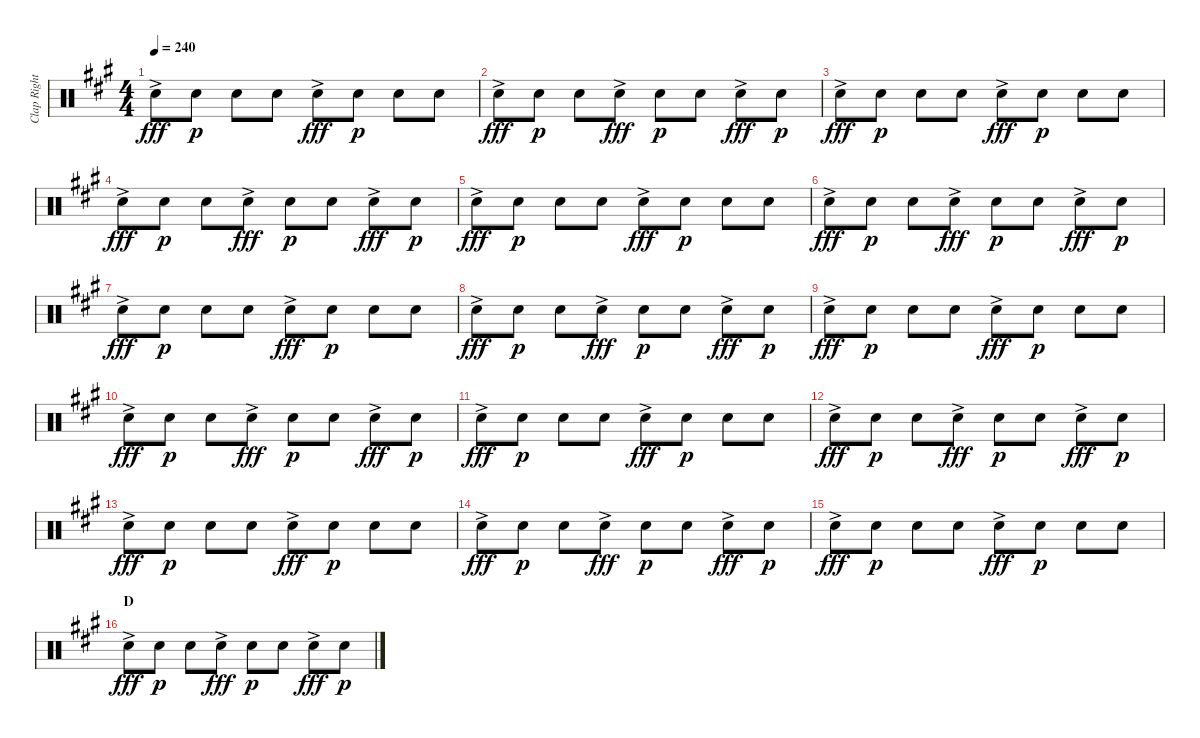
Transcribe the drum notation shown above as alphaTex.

\track ("Clap Right" "Clap Right") {instrument percussion}
\staff {score}
\articulation defaults
\ts (4 4)
\tempo 240
\clef neutral
\ks a "Hand Clap (hit)"{ac}.8{dy fff} "Hand Clap (hit)".8{dy p} "Hand Clap (hit)".8 "Hand Clap (hit)".8 "Hand Clap (hit)"{ac}.8{dy fff} "Hand Clap (hit)".8{dy p} "Hand Clap (hit)".8 "Hand Clap (hit)".8
|
"Hand Clap (hit)"{ac}.8{dy fff} "Hand Clap (hit)".8{dy p} "Hand Clap (hit)".8 "Hand Clap (hit)"{ac}.8{dy fff} "Hand Clap (hit)".8{dy p} "Hand Clap (hit)".8 "Hand Clap (hit)"{ac}.8{dy fff} "Hand Clap (hit)".8{dy p} |
"Hand Clap (hit)"{ac}.8{dy fff} "Hand Clap (hit)".8{dy p} "Hand Clap (hit)".8 "Hand Clap (hit)".8 "Hand Clap (hit)"{ac}.8{dy fff} "Hand Clap (hit)".8{dy p} "Hand Clap (hit)".8 "Hand Clap (hit)".8 |
"Hand Clap (hit)"{ac}.8{dy fff} "Hand Clap (hit)".8{dy p} "Hand Clap (hit)".8 "Hand Clap (hit)"{ac}.8{dy fff} "Hand Clap (hit)".8{dy p} "Hand Clap (hit)".8 "Hand Clap (hit)"{ac}.8{dy fff} "Hand Clap (hit)".8{dy p} |
"Hand Clap (hit)"{ac}.8{dy fff} "Hand Clap (hit)".8{dy p} "Hand Clap (hit)".8 "Hand Clap (hit)".8 "Hand Clap (hit)"{ac}.8{dy fff} "Hand Clap (hit)".8{dy p} "Hand Clap (hit)".8 "Hand Clap (hit)".8 |
"Hand Clap (hit)"{ac}.8{dy fff} "Hand Clap (hit)".8{dy p} "Hand Clap (hit)".8 "Hand Clap (hit)"{ac}.8{dy fff} "Hand Clap (hit)".8{dy p} "Hand Clap (hit)".8 "Hand Clap (hit)"{ac}.8{dy fff} "Hand Clap (hit)".8{dy p} |
"Hand Clap (hit)"{ac}.8{dy fff} "Hand Clap (hit)".8{dy p} "Hand Clap (hit)".8 "Hand Clap (hit)".8 "Hand Clap (hit)"{ac}.8{dy fff} "Hand Clap (hit)".8{dy p} "Hand Clap (hit)".8 "Hand Clap (hit)".8 |
"Hand Clap (hit)"{ac}.8{dy fff} "Hand Clap (hit)".8{dy p} "Hand Clap (hit)".8 "Hand Clap (hit)"{ac}.8{dy fff} "Hand Clap (hit)".8{dy p} "Hand Clap (hit)".8 "Hand Clap (hit)"{ac}.8{dy fff} "Hand Clap (hit)".8{dy p} |
"Hand Clap (hit)"{ac}.8{dy fff} "Hand Clap (hit)".8{dy p} "Hand Clap (hit)".8 "Hand Clap (hit)".8 "Hand Clap (hit)"{ac}.8{dy fff} "Hand Clap (hit)".8{dy p} "Hand Clap (hit)".8 "Hand Clap (hit)".8 |
"Hand Clap (hit)"{ac}.8{dy fff} "Hand Clap (hit)".8{dy p} "Hand Clap (hit)".8 "Hand Clap (hit)"{ac}.8{dy fff} "Hand Clap (hit)".8{dy p} "Hand Clap (hit)".8 "Hand Clap (hit)"{ac}.8{dy fff} "Hand Clap (hit)".8{dy p} |
"Hand Clap (hit)"{ac}.8{dy fff} "Hand Clap (hit)".8{dy p} "Hand Clap (hit)".8 "Hand Clap (hit)".8 "Hand Clap (hit)"{ac}.8{dy fff} "Hand Clap (hit)".8{dy p} "Hand Clap (hit)".8 "Hand Clap (hit)".8 |
"Hand Clap (hit)"{ac}.8{dy fff} "Hand Clap (hit)".8{dy p} "Hand Clap (hit)".8 "Hand Clap (hit)"{ac}.8{dy fff} "Hand Clap (hit)".8{dy p} "Hand Clap (hit)".8 "Hand Clap (hit)"{ac}.8{dy fff} "Hand Clap (hit)".8{dy p} |
"Hand Clap (hit)"{ac}.8{dy fff} "Hand Clap (hit)".8{dy p} "Hand Clap (hit)".8 "Hand Clap (hit)".8 "Hand Clap (hit)"{ac}.8{dy fff} "Hand Clap (hit)".8{dy p} "Hand Clap (hit)".8 "Hand Clap (hit)".8 |
"Hand Clap (hit)"{ac}.8{dy fff} "Hand Clap (hit)".8{dy p} "Hand Clap (hit)".8 "Hand Clap (hit)"{ac}.8{dy fff} "Hand Clap (hit)".8{dy p} "Hand Clap (hit)".8 "Hand Clap (hit)"{ac}.8{dy fff} "Hand Clap (hit)".8{dy p} |
"Hand Clap (hit)"{ac}.8{dy fff} "Hand Clap (hit)".8{dy p} "Hand Clap (hit)".8 "Hand Clap (hit)".8 "Hand Clap (hit)"{ac}.8{dy fff} "Hand Clap (hit)".8{dy p} "Hand Clap (hit)".8 "Hand Clap (hit)".8 |
\section ("" "D")
"Hand Clap (hit)"{ac}.8{dy fff} "Hand Clap (hit)".8{dy p} "Hand Clap (hit)".8 "Hand Clap (hit)"{ac}.8{dy fff} "Hand Clap (hit)".8{dy p} "Hand Clap (hit)".8 "Hand Clap (hit)"{ac}.8{dy fff} "Hand Clap (hit)".8{dy p}
